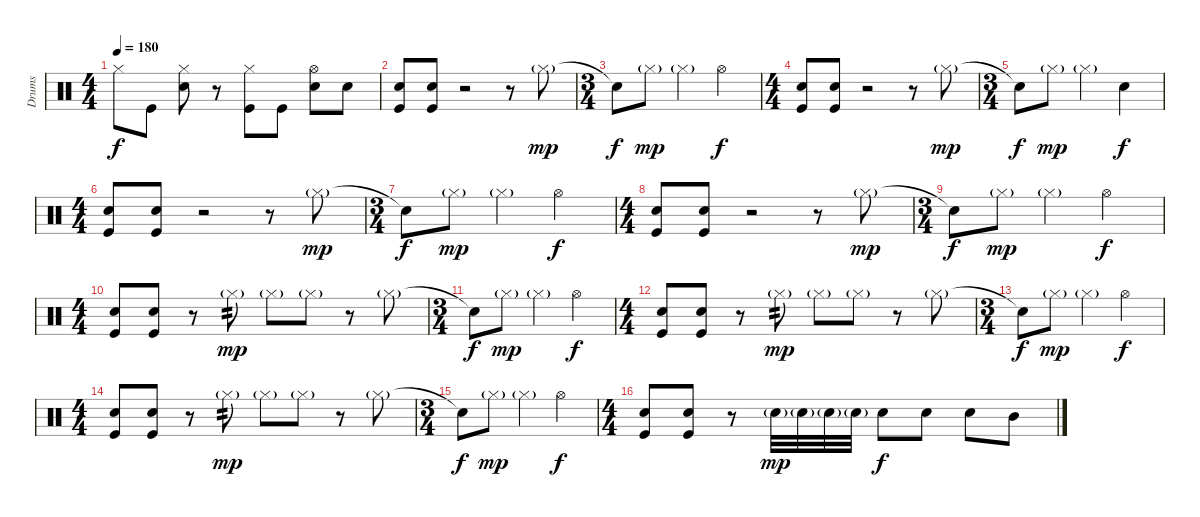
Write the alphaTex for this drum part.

\track ("Drums" "Drums") {instrument percussion}
\staff {score}
\articulation defaults
\ts (4 4)
\tempo 180
\clef neutral
\ks c "Hi-Hat (closed)".8{dy f} "Kick (hit)".8
("Hi-Hat (closed)" "Electric Snare (hit)").8 r.8 ("Hi-Hat (closed)" "Kick (hit)").8 "Kick (hit)".8 ("Hi-Hat (open)" "Electric Snare (hit)").8 "Electric Snare (hit)".8 |
("Electric Snare (hit)" "Kick (hit)").8 ("Electric Snare (hit)" "Kick (hit)").8 r.2 r.8 "Hi-Hat (closed)"{g}.8{dy mp} |
\ts (3 4)
"Snare (hit)"{t}.8{dy f} "Hi-Hat (closed)"{g}.8{dy mp} "Hi-Hat (closed)"{g}.4 "Hi-Hat (open)".4{dy f} |
\ts (4 4)
("Electric Snare (hit)" "Kick (hit)").8 ("Electric Snare (hit)" "Kick (hit)").8 r.2 r.8 "Hi-Hat (closed)"{g}.8{dy mp} |
\ts (3 4)
"Snare (hit)"{t}.8{dy f} "Hi-Hat (closed)"{g}.8{dy mp} "Hi-Hat (closed)"{g}.4 "Electric Snare (hit)".4{dy f} |
\ts (4 4)
("Electric Snare (hit)" "Kick (hit)").8 ("Electric Snare (hit)" "Kick (hit)").8 r.2 r.8 "Hi-Hat (closed)"{g}.8{dy mp} |
\ts (3 4)
"Snare (hit)"{t}.8{dy f} "Hi-Hat (closed)"{g}.8{dy mp} "Hi-Hat (closed)"{g}.4 "Hi-Hat (open)".4{dy f} |
\ts (4 4)
("Electric Snare (hit)" "Kick (hit)").8 ("Electric Snare (hit)" "Kick (hit)").8 r.2 r.8 "Hi-Hat (closed)"{g}.8{dy mp} |
\ts (3 4)
"Snare (hit)"{t}.8{dy f} "Hi-Hat (closed)"{g}.8{dy mp} "Hi-Hat (closed)"{g}.4 "Hi-Hat (open)".4{dy f} |
\ts (4 4)
("Electric Snare (hit)" "Kick (hit)").8 ("Electric Snare (hit)" "Kick (hit)").8 r.8 "Hi-Hat (closed)"{g}.8{tp 2 dy mp} "Hi-Hat (closed)"{g}.8 "Hi-Hat (closed)"{g}.8 r.8 "Hi-Hat (closed)"{g}.8 |
\ts (3 4)
"Snare (hit)"{t}.8{dy f} "Hi-Hat (closed)"{g}.8{dy mp} "Hi-Hat (closed)"{g}.4 "Hi-Hat (open)".4{dy f} |
\ts (4 4)
("Electric Snare (hit)" "Kick (hit)").8 ("Electric Snare (hit)" "Kick (hit)").8 r.8 "Hi-Hat (closed)"{g}.8{tp 2 dy mp} "Hi-Hat (closed)"{g}.8 "Hi-Hat (closed)"{g}.8 r.8 "Hi-Hat (closed)"{g}.8 |
\ts (3 4)
"Snare (hit)"{t}.8{dy f} "Hi-Hat (closed)"{g}.8{dy mp} "Hi-Hat (closed)"{g}.4 "Hi-Hat (open)".4{dy f} |
\ts (4 4)
("Electric Snare (hit)" "Kick (hit)").8 ("Electric Snare (hit)" "Kick (hit)").8 r.8 "Hi-Hat (closed)"{g}.8{tp 2 dy mp} "Hi-Hat (closed)"{g}.8 "Hi-Hat (closed)"{g}.8 r.8 "Hi-Hat (closed)"{g}.8 |
\ts (3 4)
"Snare (hit)"{t}.8{dy f} "Hi-Hat (closed)"{g}.8{dy mp} "Hi-Hat (closed)"{g}.4 "Hi-Hat (open)".4{dy f} |
\ts (4 4)
("Electric Snare (hit)" "Kick (hit)").8 ("Electric Snare (hit)" "Kick (hit)").8 r.8 "Electric Snare (hit)"{g}.32{dy mp} "Electric Snare (hit)"{g}.32 "Electric Snare (hit)"{g}.32 "Electric Snare (hit)"{g}.32 "Electric Snare (hit)".8{dy f} "Electric Snare (hit)".8 "Electric Snare (hit)".8 "Mid Tom (hit)".8
